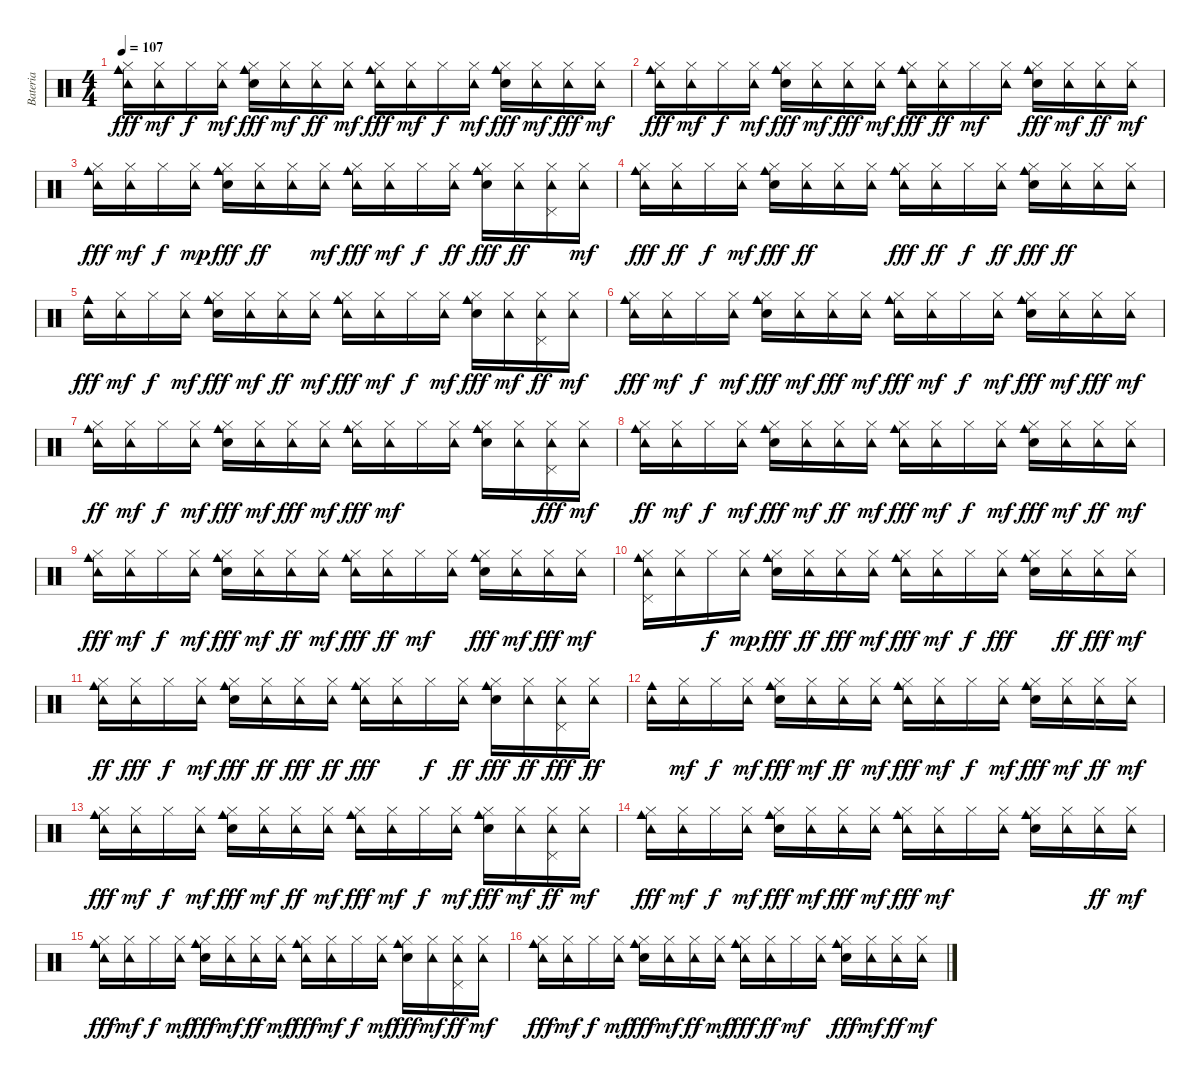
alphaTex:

\track ("Bateria" "Bateria") {instrument percussion}
\staff {score}
\articulation defaults
\ts (4 4)
\tempo 107
\clef neutral
\ks c
("Cowbell medium (hit)" "Tambourine (hit)" "Hi-Hat (closed)").16{dy fff} ("Tambourine (hit)" "Hi-Hat (closed)").16{dy mf} "Hi-Hat (closed)".16{dy f} ("Tambourine (hit)" "Hi-Hat (closed)").16{dy mf} ("Hand Clap (hit)" "Cowbell medium (hit)" "Hi-Hat (closed)").16{dy fff} ("Tambourine (hit)" "Hi-Hat (closed)").16{dy mf} ("Tambourine (hit)" "Hi-Hat (closed)").16{dy ff} ("Tambourine (hit)" "Hi-Hat (closed)").16{dy mf} ("Cowbell medium (hit)" "Tambourine (hit)" "Hi-Hat (closed)").16{dy fff} ("Tambourine (hit)" "Hi-Hat (closed)").16{dy mf} "Hi-Hat (closed)".16{dy f} ("Tambourine (hit)" "Hi-Hat (closed)").16{dy mf} ("Hand Clap (hit)" "Cowbell medium (hit)" "Hi-Hat (closed)").16{dy fff} ("Tambourine (hit)" "Hi-Hat (closed)").16{dy mf} ("Tambourine (hit)" "Hi-Hat (closed)").16{dy fff} ("Tambourine (hit)" "Hi-Hat (closed)").16{dy mf} |
("Cowbell medium (hit)" "Tambourine (hit)" "Hi-Hat (closed)").16{dy fff} ("Tambourine (hit)" "Hi-Hat (closed)").16{dy mf} "Hi-Hat (closed)".16{dy f} ("Tambourine (hit)" "Hi-Hat (closed)").16{dy mf} ("Hand Clap (hit)" "Cowbell medium (hit)" "Hi-Hat (closed)").16{dy fff} ("Tambourine (hit)" "Hi-Hat (closed)").16{dy mf} ("Tambourine (hit)" "Hi-Hat (closed)").16{dy fff} ("Tambourine (hit)" "Hi-Hat (closed)").16{dy mf} ("Cowbell medium (hit)" "Tambourine (hit)" "Hi-Hat (closed)").16{dy fff} ("Tambourine (hit)" "Hi-Hat (closed)").16{dy ff} "Hi-Hat (closed)".16{dy mf} ("Tambourine (hit)" "Hi-Hat (closed)").16 ("Hand Clap (hit)" "Cowbell medium (hit)" "Hi-Hat (closed)").16{dy fff} ("Tambourine (hit)" "Hi-Hat (closed)").16{dy mf} ("Tambourine (hit)" "Hi-Hat (closed)").16{dy ff} ("Tambourine (hit)" "Hi-Hat (closed)").16{dy mf} |
("Cowbell medium (hit)" "Tambourine (hit)" "Hi-Hat (closed)").16{dy fff} ("Tambourine (hit)" "Hi-Hat (closed)").16{dy mf} "Hi-Hat (closed)".16{dy f} ("Tambourine (hit)" "Hi-Hat (closed)").16{dy mp} ("Hand Clap (hit)" "Cowbell medium (hit)" "Hi-Hat (closed)").16{dy fff} ("Tambourine (hit)" "Hi-Hat (closed)").16{dy ff} ("Tambourine (hit)" "Hi-Hat (closed)").16 ("Tambourine (hit)" "Hi-Hat (closed)").16{dy mf} ("Cowbell medium (hit)" "Tambourine (hit)" "Hi-Hat (closed)").16{dy fff} ("Tambourine (hit)" "Hi-Hat (closed)").16{dy mf} "Hi-Hat (closed)".16{dy f} ("Tambourine (hit)" "Hi-Hat (closed)").16{dy ff} ("Hand Clap (hit)" "Cowbell medium (hit)" "Hi-Hat (closed)").16{dy fff} ("Tambourine (hit)" "Hi-Hat (closed)").16{dy ff} ("Tambourine (hit)" "Pedal Hi-Hat (hit)" "Hi-Hat (closed)").16 ("Tambourine (hit)" "Hi-Hat (closed)").16{dy mf} |
("Cowbell medium (hit)" "Tambourine (hit)" "Hi-Hat (closed)").16{dy fff} ("Tambourine (hit)" "Hi-Hat (closed)").16{dy ff} "Hi-Hat (closed)".16{dy f} ("Tambourine (hit)" "Hi-Hat (closed)").16{dy mf} ("Hand Clap (hit)" "Cowbell medium (hit)" "Hi-Hat (closed)").16{dy fff} ("Tambourine (hit)" "Hi-Hat (closed)").16{dy ff} ("Tambourine (hit)" "Hi-Hat (closed)").16 ("Tambourine (hit)" "Hi-Hat (closed)").16 ("Cowbell medium (hit)" "Tambourine (hit)" "Hi-Hat (closed)").16{dy fff} ("Tambourine (hit)" "Hi-Hat (closed)").16{dy ff} "Hi-Hat (closed)".16{dy f} ("Tambourine (hit)" "Hi-Hat (closed)").16{dy ff} ("Hand Clap (hit)" "Cowbell medium (hit)" "Hi-Hat (closed)").16{dy fff} ("Tambourine (hit)" "Hi-Hat (closed)").16{dy ff} ("Tambourine (hit)" "Hi-Hat (closed)").16 ("Tambourine (hit)" "Hi-Hat (closed)").16 |
("Cowbell medium (hit)" "Tambourine (hit)").16{dy fff} ("Tambourine (hit)" "Hi-Hat (closed)").16{dy mf} "Hi-Hat (closed)".16{dy f} ("Tambourine (hit)" "Hi-Hat (closed)").16{dy mf} ("Hand Clap (hit)" "Cowbell medium (hit)" "Hi-Hat (closed)").16{dy fff} ("Tambourine (hit)" "Hi-Hat (closed)").16{dy mf} ("Tambourine (hit)" "Hi-Hat (closed)").16{dy ff} ("Tambourine (hit)" "Hi-Hat (closed)").16{dy mf} ("Cowbell medium (hit)" "Tambourine (hit)" "Hi-Hat (closed)").16{dy fff} ("Tambourine (hit)" "Hi-Hat (closed)").16{dy mf} "Hi-Hat (closed)".16{dy f} ("Tambourine (hit)" "Hi-Hat (closed)").16{dy mf} ("Hand Clap (hit)" "Cowbell medium (hit)" "Hi-Hat (closed)").16{dy fff} ("Tambourine (hit)" "Hi-Hat (closed)").16{dy mf} ("Tambourine (hit)" "Pedal Hi-Hat (hit)" "Hi-Hat (closed)").16{dy ff} ("Tambourine (hit)" "Hi-Hat (closed)").16{dy mf} |
("Cowbell medium (hit)" "Tambourine (hit)" "Hi-Hat (closed)").16{dy fff} ("Tambourine (hit)" "Hi-Hat (closed)").16{dy mf} "Hi-Hat (closed)".16{dy f} ("Tambourine (hit)" "Hi-Hat (closed)").16{dy mf} ("Hand Clap (hit)" "Cowbell medium (hit)" "Hi-Hat (closed)").16{dy fff} ("Tambourine (hit)" "Hi-Hat (closed)").16{dy mf} ("Tambourine (hit)" "Hi-Hat (closed)").16{dy fff} ("Tambourine (hit)" "Hi-Hat (closed)").16{dy mf} ("Cowbell medium (hit)" "Tambourine (hit)" "Hi-Hat (closed)").16{dy fff} ("Tambourine (hit)" "Hi-Hat (closed)").16{dy mf} "Hi-Hat (closed)".16{dy f} ("Tambourine (hit)" "Hi-Hat (closed)").16{dy mf} ("Hand Clap (hit)" "Cowbell medium (hit)" "Hi-Hat (closed)").16{dy fff} ("Tambourine (hit)" "Hi-Hat (closed)").16{dy mf} ("Tambourine (hit)" "Hi-Hat (closed)").16{dy fff} ("Tambourine (hit)" "Hi-Hat (closed)").16{dy mf} |
("Cowbell medium (hit)" "Tambourine (hit)" "Hi-Hat (closed)").16{dy ff} ("Tambourine (hit)" "Hi-Hat (closed)").16{dy mf} "Hi-Hat (closed)".16{dy f} ("Tambourine (hit)" "Hi-Hat (closed)").16{dy mf} ("Hand Clap (hit)" "Cowbell medium (hit)" "Hi-Hat (closed)").16{dy fff} ("Tambourine (hit)" "Hi-Hat (closed)").16{dy mf} ("Tambourine (hit)" "Hi-Hat (closed)").16{dy fff} ("Tambourine (hit)" "Hi-Hat (closed)").16{dy mf} ("Cowbell medium (hit)" "Tambourine (hit)" "Hi-Hat (closed)").16{dy fff} ("Tambourine (hit)" "Hi-Hat (closed)").16{dy mf} "Hi-Hat (closed)".16 ("Tambourine (hit)" "Hi-Hat (closed)").16 ("Hand Clap (hit)" "Cowbell medium (hit)" "Hi-Hat (closed)").16 ("Tambourine (hit)" "Hi-Hat (closed)").16 ("Tambourine (hit)" "Pedal Hi-Hat (hit)" "Hi-Hat (closed)").16{dy fff} ("Tambourine (hit)" "Hi-Hat (closed)").16{dy mf} |
("Cowbell medium (hit)" "Tambourine (hit)" "Hi-Hat (closed)").16{dy ff} ("Tambourine (hit)" "Hi-Hat (closed)").16{dy mf} "Hi-Hat (closed)".16{dy f} ("Tambourine (hit)" "Hi-Hat (closed)").16{dy mf} ("Hand Clap (hit)" "Cowbell medium (hit)" "Hi-Hat (closed)").16{dy fff} ("Tambourine (hit)" "Hi-Hat (closed)").16{dy mf} ("Tambourine (hit)" "Hi-Hat (closed)").16{dy ff} ("Tambourine (hit)" "Hi-Hat (closed)").16{dy mf} ("Cowbell medium (hit)" "Tambourine (hit)" "Hi-Hat (closed)").16{dy fff} ("Tambourine (hit)" "Hi-Hat (closed)").16{dy mf} "Hi-Hat (closed)".16{dy f} ("Tambourine (hit)" "Hi-Hat (closed)").16{dy mf} ("Hand Clap (hit)" "Cowbell medium (hit)" "Hi-Hat (closed)").16{dy fff} ("Tambourine (hit)" "Hi-Hat (closed)").16{dy mf} ("Tambourine (hit)" "Hi-Hat (closed)").16{dy ff} ("Tambourine (hit)" "Hi-Hat (closed)").16{dy mf} |
("Cowbell medium (hit)" "Tambourine (hit)" "Hi-Hat (closed)").16{dy fff} ("Tambourine (hit)" "Hi-Hat (closed)").16{dy mf} "Hi-Hat (closed)".16{dy f} ("Tambourine (hit)" "Hi-Hat (closed)").16{dy mf} ("Hand Clap (hit)" "Cowbell medium (hit)" "Hi-Hat (closed)").16{dy fff} ("Tambourine (hit)" "Hi-Hat (closed)").16{dy mf} ("Tambourine (hit)" "Hi-Hat (closed)").16{dy ff} ("Tambourine (hit)" "Hi-Hat (closed)").16{dy mf} ("Cowbell medium (hit)" "Tambourine (hit)" "Hi-Hat (closed)").16{dy fff} ("Tambourine (hit)" "Hi-Hat (closed)").16{dy ff} "Hi-Hat (closed)".16{dy mf} ("Tambourine (hit)" "Hi-Hat (closed)").16 ("Hand Clap (hit)" "Cowbell medium (hit)" "Hi-Hat (closed)").16{dy fff} ("Tambourine (hit)" "Hi-Hat (closed)").16{dy mf} ("Tambourine (hit)" "Hi-Hat (closed)").16{dy fff} ("Tambourine (hit)" "Hi-Hat (closed)").16{dy mf} |
("Cowbell medium (hit)" "Tambourine (hit)" "Pedal Hi-Hat (hit)" "Hi-Hat (closed)").16 ("Tambourine (hit)" "Hi-Hat (closed)").16 "Hi-Hat (closed)".16{dy f} ("Tambourine (hit)" "Hi-Hat (closed)").16{dy mp} ("Hand Clap (hit)" "Cowbell medium (hit)" "Hi-Hat (closed)").16{dy fff} ("Tambourine (hit)" "Hi-Hat (closed)").16{dy ff} ("Tambourine (hit)" "Hi-Hat (closed)").16{dy fff} ("Tambourine (hit)" "Hi-Hat (closed)").16{dy mf} ("Cowbell medium (hit)" "Tambourine (hit)" "Hi-Hat (closed)").16{dy fff} ("Tambourine (hit)" "Hi-Hat (closed)").16{dy mf} "Hi-Hat (closed)".16{dy f} ("Tambourine (hit)" "Hi-Hat (closed)").16{dy fff} ("Hand Clap (hit)" "Cowbell medium (hit)" "Hi-Hat (closed)").16 ("Tambourine (hit)" "Hi-Hat (closed)").16{dy ff} ("Tambourine (hit)" "Hi-Hat (closed)").16{dy fff} ("Tambourine (hit)" "Hi-Hat (closed)").16{dy mf} |
("Cowbell medium (hit)" "Tambourine (hit)" "Hi-Hat (closed)").16{dy ff} ("Tambourine (hit)" "Hi-Hat (closed)").16{dy fff} "Hi-Hat (closed)".16{dy f} ("Tambourine (hit)" "Hi-Hat (closed)").16{dy mf} ("Hand Clap (hit)" "Cowbell medium (hit)" "Hi-Hat (closed)").16{dy fff} ("Tambourine (hit)" "Hi-Hat (closed)").16{dy ff} ("Tambourine (hit)" "Hi-Hat (closed)").16{dy fff} ("Tambourine (hit)" "Hi-Hat (closed)").16{dy ff} ("Cowbell medium (hit)" "Tambourine (hit)" "Hi-Hat (closed)").16{dy fff} ("Tambourine (hit)" "Hi-Hat (closed)").16 "Hi-Hat (closed)".16{dy f} ("Tambourine (hit)" "Hi-Hat (closed)").16{dy ff} ("Hand Clap (hit)" "Cowbell medium (hit)" "Hi-Hat (closed)").16{dy fff} ("Tambourine (hit)" "Hi-Hat (closed)").16{dy ff} ("Tambourine (hit)" "Pedal Hi-Hat (hit)" "Hi-Hat (closed)").16{dy fff} ("Tambourine (hit)" "Hi-Hat (closed)").16{dy ff} |
("Cowbell medium (hit)" "Tambourine (hit)").16 ("Tambourine (hit)" "Hi-Hat (closed)").16{dy mf} "Hi-Hat (closed)".16{dy f} ("Tambourine (hit)" "Hi-Hat (closed)").16{dy mf} ("Hand Clap (hit)" "Cowbell medium (hit)" "Hi-Hat (closed)").16{dy fff} ("Tambourine (hit)" "Hi-Hat (closed)").16{dy mf} ("Tambourine (hit)" "Hi-Hat (closed)").16{dy ff} ("Tambourine (hit)" "Hi-Hat (closed)").16{dy mf} ("Cowbell medium (hit)" "Tambourine (hit)" "Hi-Hat (closed)").16{dy fff} ("Tambourine (hit)" "Hi-Hat (closed)").16{dy mf} "Hi-Hat (closed)".16{dy f} ("Tambourine (hit)" "Hi-Hat (closed)").16{dy mf} ("Hand Clap (hit)" "Cowbell medium (hit)" "Hi-Hat (closed)").16{dy fff} ("Tambourine (hit)" "Hi-Hat (closed)").16{dy mf} ("Tambourine (hit)" "Hi-Hat (closed)").16{dy ff} ("Tambourine (hit)" "Hi-Hat (closed)").16{dy mf} |
("Cowbell medium (hit)" "Tambourine (hit)" "Hi-Hat (closed)").16{dy fff} ("Tambourine (hit)" "Hi-Hat (closed)").16{dy mf} "Hi-Hat (closed)".16{dy f} ("Tambourine (hit)" "Hi-Hat (closed)").16{dy mf} ("Hand Clap (hit)" "Cowbell medium (hit)" "Hi-Hat (closed)").16{dy fff} ("Tambourine (hit)" "Hi-Hat (closed)").16{dy mf} ("Tambourine (hit)" "Hi-Hat (closed)").16{dy ff} ("Tambourine (hit)" "Hi-Hat (closed)").16{dy mf} ("Cowbell medium (hit)" "Tambourine (hit)" "Hi-Hat (closed)").16{dy fff} ("Tambourine (hit)" "Hi-Hat (closed)").16{dy mf} "Hi-Hat (closed)".16{dy f} ("Tambourine (hit)" "Hi-Hat (closed)").16{dy mf} ("Hand Clap (hit)" "Cowbell medium (hit)" "Hi-Hat (closed)").16{dy fff} ("Tambourine (hit)" "Hi-Hat (closed)").16{dy mf} ("Tambourine (hit)" "Pedal Hi-Hat (hit)" "Hi-Hat (closed)").16{dy ff} ("Tambourine (hit)" "Hi-Hat (closed)").16{dy mf} |
("Cowbell medium (hit)" "Tambourine (hit)" "Hi-Hat (closed)").16{dy fff} ("Tambourine (hit)" "Hi-Hat (closed)").16{dy mf} "Hi-Hat (closed)".16{dy f} ("Tambourine (hit)" "Hi-Hat (closed)").16{dy mf} ("Hand Clap (hit)" "Cowbell medium (hit)" "Hi-Hat (closed)").16{dy fff} ("Tambourine (hit)" "Hi-Hat (closed)").16{dy mf} ("Tambourine (hit)" "Hi-Hat (closed)").16{dy fff} ("Tambourine (hit)" "Hi-Hat (closed)").16{dy mf} ("Cowbell medium (hit)" "Tambourine (hit)" "Hi-Hat (closed)").16{dy fff} ("Tambourine (hit)" "Hi-Hat (closed)").16{dy mf} "Hi-Hat (closed)".16 ("Tambourine (hit)" "Hi-Hat (closed)").16 ("Hand Clap (hit)" "Cowbell medium (hit)" "Hi-Hat (closed)").16 ("Tambourine (hit)" "Hi-Hat (closed)").16 ("Tambourine (hit)" "Hi-Hat (closed)").16{dy ff} ("Tambourine (hit)" "Hi-Hat (closed)").16{dy mf} |
("Cowbell medium (hit)" "Tambourine (hit)" "Hi-Hat (closed)").16{dy fff} ("Tambourine (hit)" "Hi-Hat (closed)").16{dy mf} "Hi-Hat (closed)".16{dy f} ("Tambourine (hit)" "Hi-Hat (closed)").16{dy mf} ("Hand Clap (hit)" "Cowbell medium (hit)" "Hi-Hat (closed)").16{dy fff} ("Tambourine (hit)" "Hi-Hat (closed)").16{dy mf} ("Tambourine (hit)" "Hi-Hat (closed)").16{dy ff} ("Tambourine (hit)" "Hi-Hat (closed)").16{dy mf} ("Cowbell medium (hit)" "Tambourine (hit)" "Hi-Hat (closed)").16{dy fff} ("Tambourine (hit)" "Hi-Hat (closed)").16{dy mf} "Hi-Hat (closed)".16{dy f} ("Tambourine (hit)" "Hi-Hat (closed)").16{dy mf} ("Hand Clap (hit)" "Cowbell medium (hit)" "Hi-Hat (closed)").16{dy fff} ("Tambourine (hit)" "Hi-Hat (closed)").16{dy mf} ("Tambourine (hit)" "Pedal Hi-Hat (hit)" "Hi-Hat (closed)").16{dy ff} ("Tambourine (hit)" "Hi-Hat (closed)").16{dy mf} |
("Cowbell medium (hit)" "Tambourine (hit)" "Hi-Hat (closed)").16{dy fff} ("Tambourine (hit)" "Hi-Hat (closed)").16{dy mf} "Hi-Hat (closed)".16{dy f} ("Tambourine (hit)" "Hi-Hat (closed)").16{dy mf} ("Hand Clap (hit)" "Cowbell medium (hit)" "Hi-Hat (closed)").16{dy fff} ("Tambourine (hit)" "Hi-Hat (closed)").16{dy mf} ("Tambourine (hit)" "Hi-Hat (closed)").16{dy ff} ("Tambourine (hit)" "Hi-Hat (closed)").16{dy mf} ("Cowbell medium (hit)" "Tambourine (hit)" "Hi-Hat (closed)").16{dy fff} ("Tambourine (hit)" "Hi-Hat (closed)").16{dy ff} "Hi-Hat (closed)".16{dy mf} ("Tambourine (hit)" "Hi-Hat (closed)").16 ("Hand Clap (hit)" "Cowbell medium (hit)" "Hi-Hat (closed)").16{dy fff} ("Tambourine (hit)" "Hi-Hat (closed)").16{dy mf} ("Tambourine (hit)" "Hi-Hat (closed)").16{dy ff} ("Tambourine (hit)" "Hi-Hat (closed)").16{dy mf}
